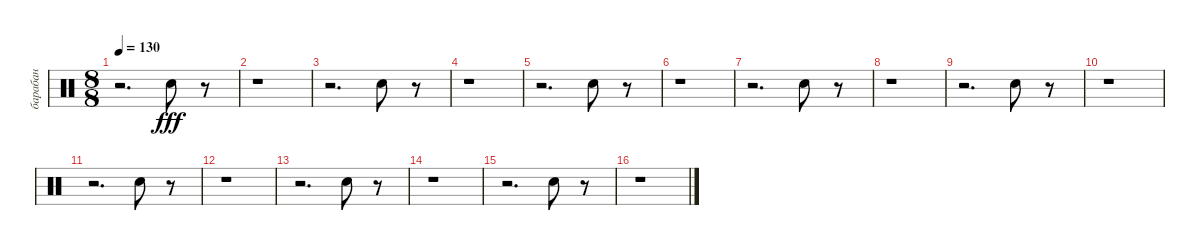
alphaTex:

\track ("барабан" "барабан") {instrument percussion}
\staff {score}
\articulation defaults
\ts (8 8)
\tempo 130
\clef neutral
\ks c
r.2{d dy fff} "Snare (hit) 2".8 r.8 |
r.1 |
r.2{d} "Snare (hit) 2".8 r.8 |
r.1 |
r.2{d} "Snare (hit) 2".8 r.8 |
r.1 |
r.2{d} "Snare (hit) 2".8 r.8 |
r.1 |
r.2{d} "Snare (hit) 2".8 r.8 |
r.1 |
r.2{d} "Snare (hit) 2".8 r.8 |
r.1 |
r.2{d} "Snare (hit) 2".8 r.8 |
r.1 |
r.2{d} "Snare (hit) 2".8 r.8 |
r.1
